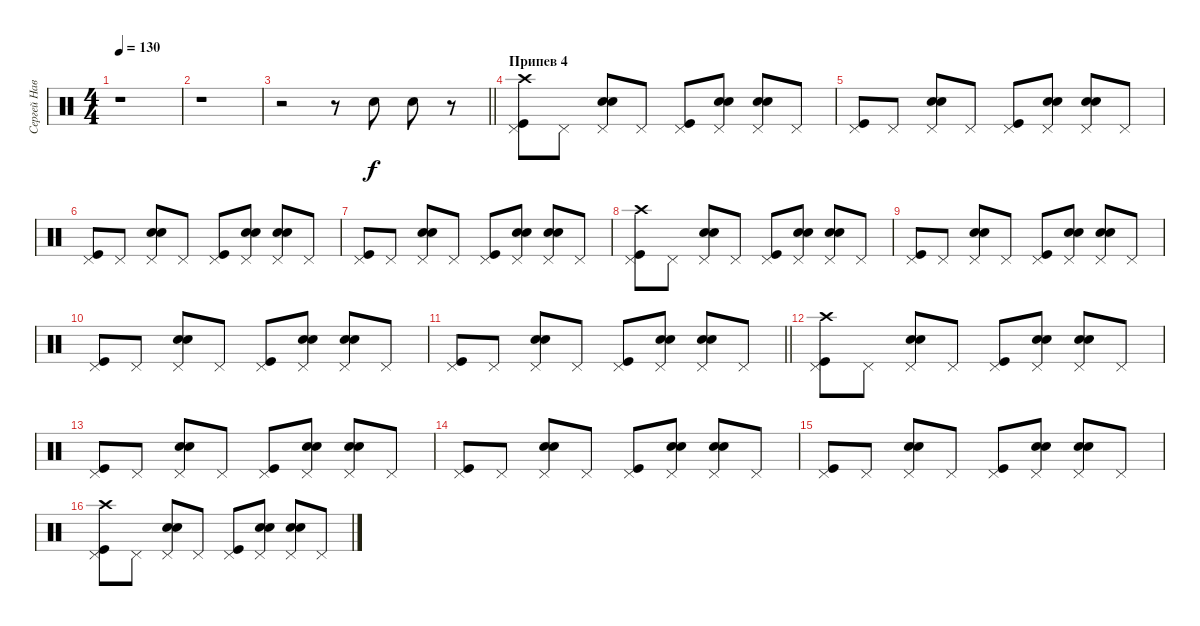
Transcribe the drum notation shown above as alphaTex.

\track ("Сергей Наветный" "Сергей Нав") {instrument percussion}
\staff {score}
\articulation defaults
\ts (4 4)
\tempo 130
\clef neutral
\ks c
r.1{dy f} |
r.1 |
\barLineRight lightlight
r.2 r.8 "Snare (hit) 2".8 "Snare (hit) 2".8 r.8 |
\section ("" "Припев 4")
("Crash high (hit)" "Kick (hit)" "Pedal Hi-Hat (hit)").8 "Pedal Hi-Hat (hit)".8 ("Hand Clap (hit)" "Snare (hit) 2" "Pedal Hi-Hat (hit)").8 "Pedal Hi-Hat (hit)".8 ("Kick (hit)" "Pedal Hi-Hat (hit)").8 ("Hand Clap (hit)" "Snare (hit) 2" "Pedal Hi-Hat (hit)").8 ("Hand Clap (hit)" "Snare (hit) 2" "Pedal Hi-Hat (hit)").8 "Pedal Hi-Hat (hit)".8 |
("Kick (hit)" "Pedal Hi-Hat (hit)").8 "Pedal Hi-Hat (hit)".8 ("Hand Clap (hit)" "Snare (hit) 2" "Pedal Hi-Hat (hit)").8 "Pedal Hi-Hat (hit)".8 ("Kick (hit)" "Pedal Hi-Hat (hit)").8 ("Hand Clap (hit)" "Snare (hit) 2" "Pedal Hi-Hat (hit)").8 ("Hand Clap (hit)" "Snare (hit) 2" "Pedal Hi-Hat (hit)").8 "Pedal Hi-Hat (hit)".8 |
("Kick (hit)" "Pedal Hi-Hat (hit)").8 "Pedal Hi-Hat (hit)".8 ("Hand Clap (hit)" "Snare (hit) 2" "Pedal Hi-Hat (hit)").8 "Pedal Hi-Hat (hit)".8 ("Kick (hit)" "Pedal Hi-Hat (hit)").8 ("Hand Clap (hit)" "Snare (hit) 2" "Pedal Hi-Hat (hit)").8 ("Hand Clap (hit)" "Snare (hit) 2" "Pedal Hi-Hat (hit)").8 "Pedal Hi-Hat (hit)".8 |
("Kick (hit)" "Pedal Hi-Hat (hit)").8 "Pedal Hi-Hat (hit)".8 ("Hand Clap (hit)" "Snare (hit) 2" "Pedal Hi-Hat (hit)").8 "Pedal Hi-Hat (hit)".8 ("Kick (hit)" "Pedal Hi-Hat (hit)").8 ("Hand Clap (hit)" "Snare (hit) 2" "Pedal Hi-Hat (hit)").8 ("Hand Clap (hit)" "Snare (hit) 2" "Pedal Hi-Hat (hit)").8 "Pedal Hi-Hat (hit)".8 |
("Crash high (hit)" "Kick (hit)" "Pedal Hi-Hat (hit)").8 "Pedal Hi-Hat (hit)".8 ("Hand Clap (hit)" "Snare (hit) 2" "Pedal Hi-Hat (hit)").8 "Pedal Hi-Hat (hit)".8 ("Kick (hit)" "Pedal Hi-Hat (hit)").8 ("Hand Clap (hit)" "Snare (hit) 2" "Pedal Hi-Hat (hit)").8 ("Hand Clap (hit)" "Snare (hit) 2" "Pedal Hi-Hat (hit)").8 "Pedal Hi-Hat (hit)".8 |
("Kick (hit)" "Pedal Hi-Hat (hit)").8 "Pedal Hi-Hat (hit)".8 ("Hand Clap (hit)" "Snare (hit) 2" "Pedal Hi-Hat (hit)").8 "Pedal Hi-Hat (hit)".8 ("Kick (hit)" "Pedal Hi-Hat (hit)").8 ("Hand Clap (hit)" "Snare (hit) 2" "Pedal Hi-Hat (hit)").8 ("Hand Clap (hit)" "Snare (hit) 2" "Pedal Hi-Hat (hit)").8 "Pedal Hi-Hat (hit)".8 |
("Kick (hit)" "Pedal Hi-Hat (hit)").8 "Pedal Hi-Hat (hit)".8 ("Hand Clap (hit)" "Snare (hit) 2" "Pedal Hi-Hat (hit)").8 "Pedal Hi-Hat (hit)".8 ("Kick (hit)" "Pedal Hi-Hat (hit)").8 ("Hand Clap (hit)" "Snare (hit) 2" "Pedal Hi-Hat (hit)").8 ("Hand Clap (hit)" "Snare (hit) 2" "Pedal Hi-Hat (hit)").8 "Pedal Hi-Hat (hit)".8 |
\barLineRight lightlight
("Kick (hit)" "Pedal Hi-Hat (hit)").8 "Pedal Hi-Hat (hit)".8 ("Hand Clap (hit)" "Snare (hit) 2" "Pedal Hi-Hat (hit)").8 "Pedal Hi-Hat (hit)".8 ("Kick (hit)" "Pedal Hi-Hat (hit)").8 ("Hand Clap (hit)" "Snare (hit) 2" "Pedal Hi-Hat (hit)").8 ("Hand Clap (hit)" "Snare (hit) 2" "Pedal Hi-Hat (hit)").8 "Pedal Hi-Hat (hit)".8 |
("Crash high (hit)" "Kick (hit)" "Pedal Hi-Hat (hit)").8 "Pedal Hi-Hat (hit)".8 ("Hand Clap (hit)" "Snare (hit) 2" "Pedal Hi-Hat (hit)").8 "Pedal Hi-Hat (hit)".8 ("Kick (hit)" "Pedal Hi-Hat (hit)").8 ("Hand Clap (hit)" "Snare (hit) 2" "Pedal Hi-Hat (hit)").8 ("Hand Clap (hit)" "Snare (hit) 2" "Pedal Hi-Hat (hit)").8 "Pedal Hi-Hat (hit)".8 |
("Kick (hit)" "Pedal Hi-Hat (hit)").8 "Pedal Hi-Hat (hit)".8 ("Hand Clap (hit)" "Snare (hit) 2" "Pedal Hi-Hat (hit)").8 "Pedal Hi-Hat (hit)".8 ("Kick (hit)" "Pedal Hi-Hat (hit)").8 ("Hand Clap (hit)" "Snare (hit) 2" "Pedal Hi-Hat (hit)").8 ("Hand Clap (hit)" "Snare (hit) 2" "Pedal Hi-Hat (hit)").8 "Pedal Hi-Hat (hit)".8 |
("Kick (hit)" "Pedal Hi-Hat (hit)").8 "Pedal Hi-Hat (hit)".8 ("Hand Clap (hit)" "Snare (hit) 2" "Pedal Hi-Hat (hit)").8 "Pedal Hi-Hat (hit)".8 ("Kick (hit)" "Pedal Hi-Hat (hit)").8 ("Hand Clap (hit)" "Snare (hit) 2" "Pedal Hi-Hat (hit)").8 ("Hand Clap (hit)" "Snare (hit) 2" "Pedal Hi-Hat (hit)").8 "Pedal Hi-Hat (hit)".8 |
("Kick (hit)" "Pedal Hi-Hat (hit)").8 "Pedal Hi-Hat (hit)".8 ("Hand Clap (hit)" "Snare (hit) 2" "Pedal Hi-Hat (hit)").8 "Pedal Hi-Hat (hit)".8 ("Kick (hit)" "Pedal Hi-Hat (hit)").8 ("Hand Clap (hit)" "Snare (hit) 2" "Pedal Hi-Hat (hit)").8 ("Hand Clap (hit)" "Snare (hit) 2" "Pedal Hi-Hat (hit)").8 "Pedal Hi-Hat (hit)".8 |
("Crash high (hit)" "Kick (hit)" "Pedal Hi-Hat (hit)").8 "Pedal Hi-Hat (hit)".8 ("Hand Clap (hit)" "Snare (hit) 2" "Pedal Hi-Hat (hit)").8 "Pedal Hi-Hat (hit)".8 ("Kick (hit)" "Pedal Hi-Hat (hit)").8 ("Hand Clap (hit)" "Snare (hit) 2" "Pedal Hi-Hat (hit)").8 ("Hand Clap (hit)" "Snare (hit) 2" "Pedal Hi-Hat (hit)").8 "Pedal Hi-Hat (hit)".8
